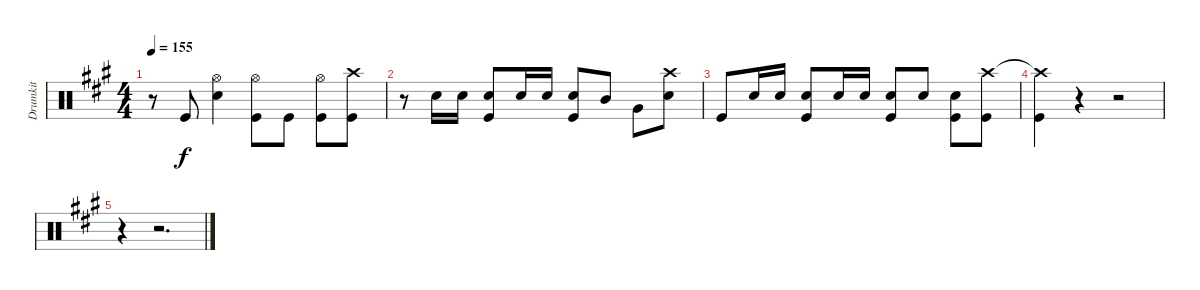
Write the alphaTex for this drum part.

\track ("Drumkit" "Drumkit") {instrument percussion}
\staff {score}
\articulation defaults
\ts (4 4)
\tempo 155
\clef neutral
\ks a
r.8{dy f} "Kick (hit)".8 ("Hi-Hat (open)" "Snare (hit) 2").4 ("Hi-Hat (open)" "Kick (hit)").8 "Kick (hit)".8 ("Hi-Hat (open)" "Kick (hit)").8 ("Crash high (hit)" "Kick (hit)").8 |
r.8 "Snare (hit) 2".16 "Snare (hit) 2".16 ("Snare (hit) 2" "Kick (hit)").8 "Snare (hit) 2".16 "Snare (hit) 2".16 ("Snare (hit) 2" "Kick (hit)").8 "Mid Tom (hit)".8 "Very Low Tom (hit)".8 ("Crash high (hit)" "Snare (hit) 2").8 |
"Kick (hit)".8 "Snare (hit) 2".16 "Snare (hit) 2".16 ("Snare (hit) 2" "Kick (hit)").8 "Snare (hit) 2".16 "Snare (hit) 2".16 ("Snare (hit) 2" "Kick (hit)").8 "Snare (hit) 2".8 ("Snare (hit) 2" "Kick (hit)").8 ("Crash high (hit)" "Kick (hit)").8 |
("Crash high (hit)"{t} "Kick (hit)").4 r.4 r.2 |
r.4 r.2{d}
